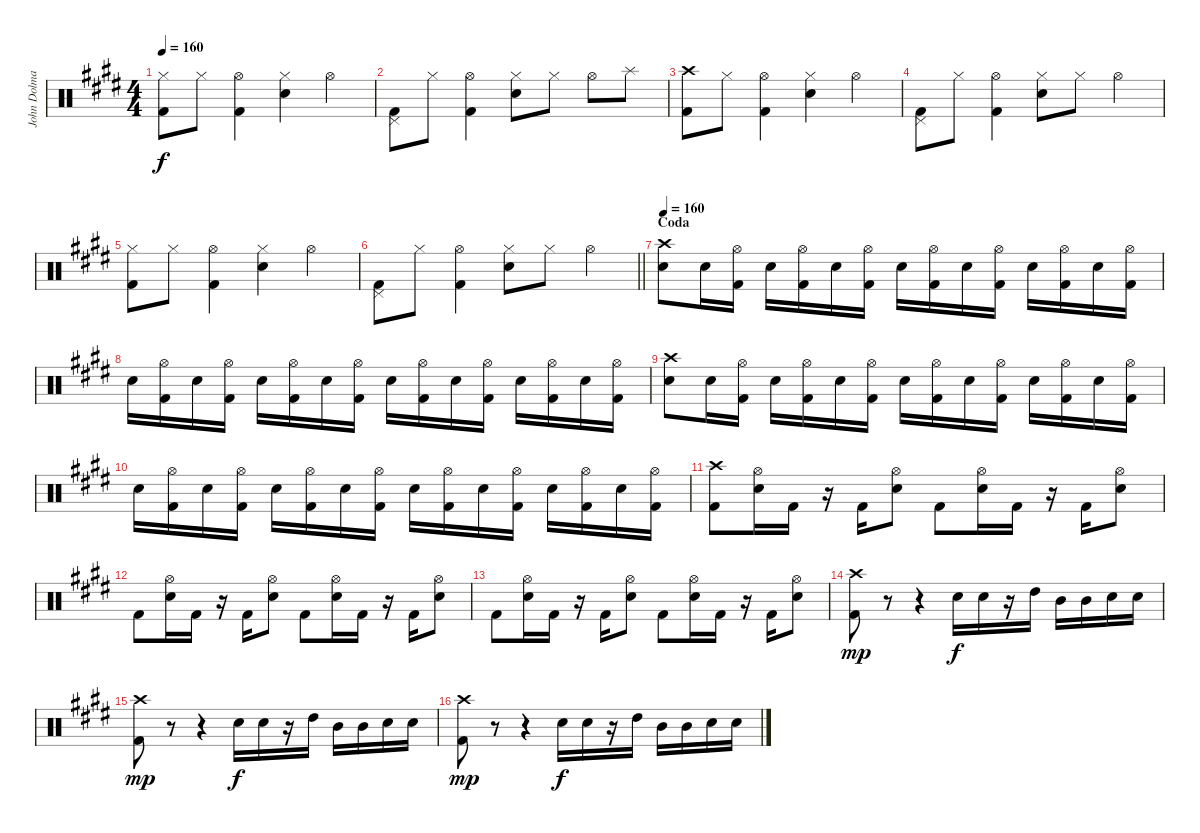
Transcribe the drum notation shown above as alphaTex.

\track ("John Dolmayan [Drums]" "John Dolma") {instrument percussion}
\staff {score}
\articulation defaults
\ts (4 4)
\tempo 160
\clef neutral
\ks c#minor
("Hi-Hat (closed)" "Kick (hit) 2").8{dy f} "Hi-Hat (closed)".8 ("Hi-Hat (open)" "Kick (hit) 2").4 ("Hi-Hat (closed)" "Electric Snare (hit)").4 "Hi-Hat (open)".4 |
("Pedal Hi-Hat (hit)" "Kick (hit) 2").8 "Hi-Hat (closed)".8 ("Hi-Hat (open)" "Kick (hit) 2").4 ("Hi-Hat (closed)" "Electric Snare (hit)").8 "Hi-Hat (closed)".8 "Hi-Hat (open)".8 "Splash (hit)".8 |
("Crash high (hit)" "Kick (hit) 2").8 "Hi-Hat (closed)".8 ("Hi-Hat (open)" "Kick (hit) 2").4 ("Hi-Hat (closed)" "Electric Snare (hit)").4 "Hi-Hat (open)".4 |
("Pedal Hi-Hat (hit)" "Kick (hit) 2").8 "Hi-Hat (closed)".8 ("Hi-Hat (open)" "Kick (hit) 2").4 ("Hi-Hat (closed)" "Electric Snare (hit)").8 "Hi-Hat (closed)".8 "Hi-Hat (open)".4 |
("Hi-Hat (closed)" "Kick (hit) 2").8 "Hi-Hat (closed)".8 ("Hi-Hat (open)" "Kick (hit) 2").4 ("Hi-Hat (closed)" "Electric Snare (hit)").4 "Hi-Hat (open)".4 |
\barLineRight lightlight
("Pedal Hi-Hat (hit)" "Kick (hit) 2").8 "Hi-Hat (closed)".8 ("Hi-Hat (open)" "Kick (hit) 2").4 ("Hi-Hat (closed)" "Electric Snare (hit)").8 "Hi-Hat (closed)".8 "Hi-Hat (open)".4 |
\section ("" "Coda")
\tempo 160
("Crash high (hit)" "Electric Snare (hit)").8 "Electric Snare (hit)".16 ("Hi-Hat (open)" "Kick (hit) 2").16 "Electric Snare (hit)".16 ("Hi-Hat (open)" "Kick (hit) 2").16 "Electric Snare (hit)".16 ("Hi-Hat (open)" "Kick (hit) 2").16 "Electric Snare (hit)".16 ("Hi-Hat (open)" "Kick (hit) 2").16 "Electric Snare (hit)".16 ("Hi-Hat (open)" "Kick (hit) 2").16 "Electric Snare (hit)".16 ("Hi-Hat (open)" "Kick (hit) 2").16 "Electric Snare (hit)".16 ("Hi-Hat (open)" "Kick (hit) 2").16 |
"Electric Snare (hit)".16 ("Hi-Hat (open)" "Kick (hit) 2").16 "Electric Snare (hit)".16 ("Hi-Hat (open)" "Kick (hit) 2").16 "Electric Snare (hit)".16 ("Hi-Hat (open)" "Kick (hit) 2").16 "Electric Snare (hit)".16 ("Hi-Hat (open)" "Kick (hit) 2").16 "Electric Snare (hit)".16 ("Hi-Hat (open)" "Kick (hit) 2").16 "Electric Snare (hit)".16 ("Hi-Hat (open)" "Kick (hit) 2").16 "Electric Snare (hit)".16 ("Hi-Hat (open)" "Kick (hit) 2").16 "Electric Snare (hit)".16 ("Hi-Hat (open)" "Kick (hit) 2").16 |
("Crash high (hit)" "Electric Snare (hit)").8 "Electric Snare (hit)".16 ("Hi-Hat (open)" "Kick (hit) 2").16 "Electric Snare (hit)".16 ("Hi-Hat (open)" "Kick (hit) 2").16 "Electric Snare (hit)".16 ("Hi-Hat (open)" "Kick (hit) 2").16 "Electric Snare (hit)".16 ("Hi-Hat (open)" "Kick (hit) 2").16 "Electric Snare (hit)".16 ("Hi-Hat (open)" "Kick (hit) 2").16 "Electric Snare (hit)".16 ("Hi-Hat (open)" "Kick (hit) 2").16 "Electric Snare (hit)".16 ("Hi-Hat (open)" "Kick (hit) 2").16 |
"Electric Snare (hit)".16 ("Hi-Hat (open)" "Kick (hit) 2").16 "Electric Snare (hit)".16 ("Hi-Hat (open)" "Kick (hit) 2").16 "Electric Snare (hit)".16 ("Hi-Hat (open)" "Kick (hit) 2").16 "Electric Snare (hit)".16 ("Hi-Hat (open)" "Kick (hit) 2").16 "Electric Snare (hit)".16 ("Hi-Hat (open)" "Kick (hit) 2").16 "Electric Snare (hit)".16 ("Hi-Hat (open)" "Kick (hit) 2").16 "Electric Snare (hit)".16 ("Hi-Hat (open)" "Kick (hit) 2").16 "Electric Snare (hit)".16 ("Hi-Hat (open)" "Kick (hit) 2").16 |
("Crash high (hit)" "Kick (hit) 2").8 ("Hi-Hat (open)" "Electric Snare (hit)").16 "Kick (hit) 2".16 r.16 "Kick (hit) 2".16 ("Hi-Hat (open)" "Electric Snare (hit)").8 "Kick (hit) 2".8 ("Hi-Hat (open)" "Electric Snare (hit)").16 "Kick (hit) 2".16 r.16 "Kick (hit) 2".16 ("Hi-Hat (open)" "Electric Snare (hit)").8 |
"Kick (hit) 2".8 ("Hi-Hat (open)" "Electric Snare (hit)").16 "Kick (hit) 2".16 r.16 "Kick (hit) 2".16 ("Hi-Hat (open)" "Electric Snare (hit)").8 "Kick (hit) 2".8 ("Hi-Hat (open)" "Electric Snare (hit)").16 "Kick (hit) 2".16 r.16 "Kick (hit) 2".16 ("Hi-Hat (open)" "Electric Snare (hit)").8 |
"Kick (hit) 2".8 ("Hi-Hat (open)" "Electric Snare (hit)").16 "Kick (hit) 2".16 r.16 "Kick (hit) 2".16 ("Hi-Hat (open)" "Electric Snare (hit)").8 "Kick (hit) 2".8 ("Hi-Hat (open)" "Electric Snare (hit)").16 "Kick (hit) 2".16 r.16 "Kick (hit) 2".16 ("Hi-Hat (open)" "Electric Snare (hit)").8 |
("Crash high (hit)" "Kick (hit) 2").8{dy mp} r.8{volume 0} r.4 "Electric Snare (hit)".16{dy f volume 13} "Electric Snare (hit)".16 r.16 "High Tom (hit)".16 "Mid Tom (hit)".16 "Mid Tom (hit)".16 "Electric Snare (hit)".16 "Electric Snare (hit)".16 |
("Crash high (hit)" "Kick (hit) 2").8{dy mp} r.8{volume 0} r.4 "Electric Snare (hit)".16{dy f volume 13} "Electric Snare (hit)".16 r.16 "High Tom (hit)".16 "Mid Tom (hit)".16 "Mid Tom (hit)".16 "Electric Snare (hit)".16 "Electric Snare (hit)".16 |
("Crash high (hit)" "Kick (hit) 2").8{dy mp} r.8{volume 0} r.4 "Electric Snare (hit)".16{dy f volume 13} "Electric Snare (hit)".16 r.16 "High Tom (hit)".16 "Mid Tom (hit)".16 "Mid Tom (hit)".16 "Electric Snare (hit)".16 "Electric Snare (hit)".16
